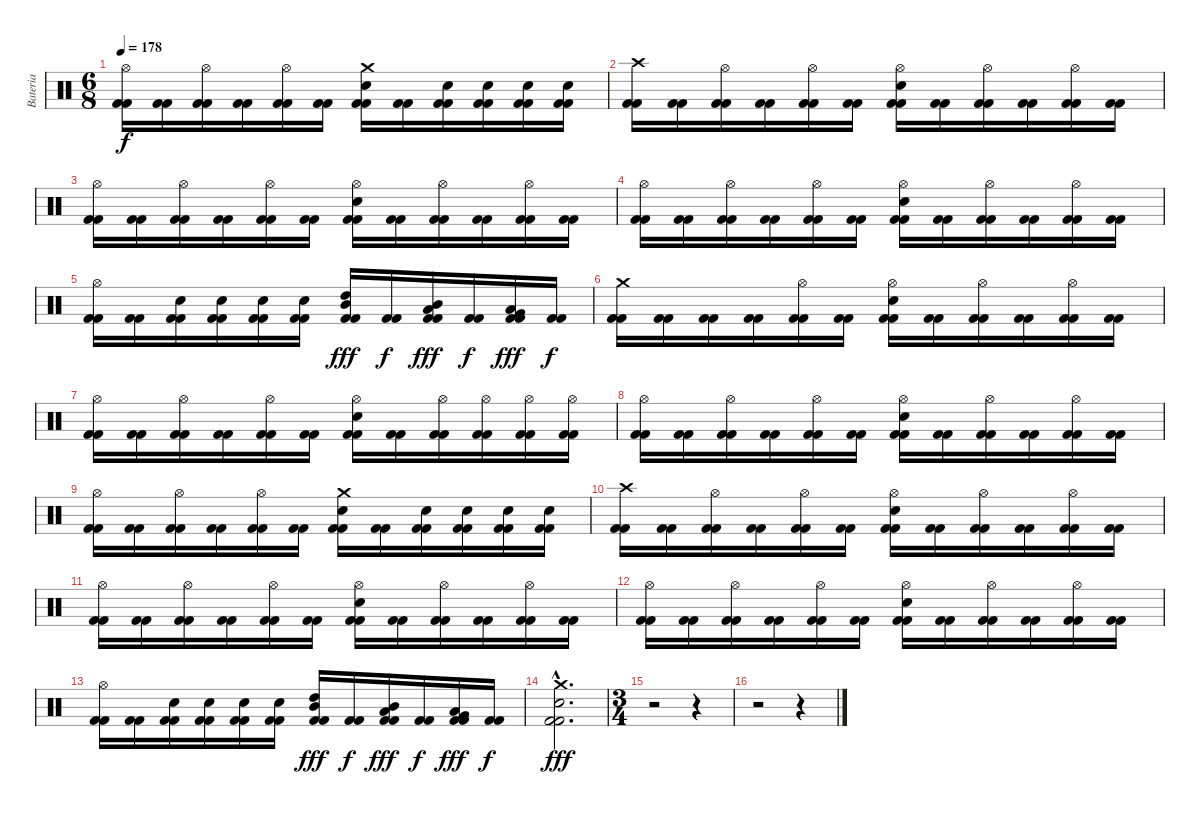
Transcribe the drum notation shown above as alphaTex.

\track ("Bateria" "Bateria") {instrument percussion}
\staff {score}
\articulation defaults
\ts (6 8)
\tempo 178
\clef neutral
\ks c
("Kick (hit) 2" "Kick (hit) 2" "Hi-Hat (open)").16{dy f} ("Kick (hit) 2" "Kick (hit) 2").16 ("Kick (hit) 2" "Kick (hit) 2" "Hi-Hat (open)").16 ("Kick (hit) 2" "Kick (hit) 2").16 ("Kick (hit) 2" "Kick (hit) 2" "Hi-Hat (open)").16 ("Kick (hit) 2" "Kick (hit) 2").16 ("Kick (hit) 2" "Kick (hit) 2" "Snare (hit) 2" "Crash medium (hit)").16 ("Kick (hit) 2" "Kick (hit) 2").16 ("Kick (hit) 2" "Kick (hit) 2" "Snare (hit) 2").16 ("Kick (hit) 2" "Kick (hit) 2" "Snare (hit) 2").16 ("Kick (hit) 2" "Kick (hit) 2" "Snare (hit) 2").16 ("Kick (hit) 2" "Kick (hit) 2" "Snare (hit) 2").16 |
("Kick (hit) 2" "Kick (hit) 2" "Crash high (hit)").16 ("Kick (hit) 2" "Kick (hit) 2").16 ("Kick (hit) 2" "Kick (hit) 2" "Hi-Hat (open)").16 ("Kick (hit) 2" "Kick (hit) 2").16 ("Kick (hit) 2" "Kick (hit) 2" "Hi-Hat (open)").16 ("Kick (hit) 2" "Kick (hit) 2").16 ("Kick (hit) 2" "Kick (hit) 2" "Snare (hit) 2" "Hi-Hat (open)").16 ("Kick (hit) 2" "Kick (hit) 2").16 ("Kick (hit) 2" "Kick (hit) 2" "Hi-Hat (open)").16 ("Kick (hit) 2" "Kick (hit) 2").16 ("Kick (hit) 2" "Kick (hit) 2" "Hi-Hat (open)").16 ("Kick (hit) 2" "Kick (hit) 2").16 |
("Kick (hit) 2" "Kick (hit) 2" "Hi-Hat (open)").16 ("Kick (hit) 2" "Kick (hit) 2").16 ("Kick (hit) 2" "Kick (hit) 2" "Hi-Hat (open)").16 ("Kick (hit) 2" "Kick (hit) 2").16 ("Kick (hit) 2" "Kick (hit) 2" "Hi-Hat (open)").16 ("Kick (hit) 2" "Kick (hit) 2").16 ("Kick (hit) 2" "Kick (hit) 2" "Snare (hit) 2" "Hi-Hat (open)").16 ("Kick (hit) 2" "Kick (hit) 2").16 ("Kick (hit) 2" "Kick (hit) 2" "Hi-Hat (open)").16 ("Kick (hit) 2" "Kick (hit) 2").16 ("Kick (hit) 2" "Kick (hit) 2" "Hi-Hat (open)").16 ("Kick (hit) 2" "Kick (hit) 2").16 |
("Kick (hit) 2" "Kick (hit) 2" "Hi-Hat (open)").16 ("Kick (hit) 2" "Kick (hit) 2").16 ("Kick (hit) 2" "Kick (hit) 2" "Hi-Hat (open)").16 ("Kick (hit) 2" "Kick (hit) 2").16 ("Kick (hit) 2" "Kick (hit) 2" "Hi-Hat (open)").16 ("Kick (hit) 2" "Kick (hit) 2").16 ("Kick (hit) 2" "Kick (hit) 2" "Snare (hit) 2" "Hi-Hat (open)").16 ("Kick (hit) 2" "Kick (hit) 2").16 ("Kick (hit) 2" "Kick (hit) 2" "Hi-Hat (open)").16 ("Kick (hit) 2" "Kick (hit) 2").16 ("Kick (hit) 2" "Kick (hit) 2" "Hi-Hat (open)").16 ("Kick (hit) 2" "Kick (hit) 2").16 |
("Kick (hit) 2" "Kick (hit) 2" "Hi-Hat (open)").16 ("Kick (hit) 2" "Kick (hit) 2").16 ("Kick (hit) 2" "Kick (hit) 2" "Snare (hit) 2").16 ("Kick (hit) 2" "Kick (hit) 2" "Snare (hit) 2").16 ("Kick (hit) 2" "Kick (hit) 2" "Snare (hit) 2").16 ("Kick (hit) 2" "Kick (hit) 2" "Snare (hit) 2").16 ("Kick (hit) 2" "Kick (hit) 2" "Mid Tom (hit)" "High Tom (hit)").16{dy fff} ("Kick (hit) 2" "Kick (hit) 2").16{dy f} ("Kick (hit) 2" "Kick (hit) 2" "Low Tom (hit)" "Mid Tom (hit)").16{dy fff} ("Kick (hit) 2" "Kick (hit) 2").16{dy f} ("Kick (hit) 2" "Kick (hit) 2" "Very Low Tom (hit)" "Low Tom (hit)").16{dy fff} ("Kick (hit) 2" "Kick (hit) 2").16{dy f} |
("Kick (hit) 2" "Kick (hit) 2" "Crash medium (hit)").16 ("Kick (hit) 2" "Kick (hit) 2").16 ("Kick (hit) 2" "Kick (hit) 2").16 ("Kick (hit) 2" "Kick (hit) 2").16 ("Kick (hit) 2" "Kick (hit) 2" "Hi-Hat (open)").16 ("Kick (hit) 2" "Kick (hit) 2").16 ("Kick (hit) 2" "Kick (hit) 2" "Snare (hit) 2" "Hi-Hat (open)").16 ("Kick (hit) 2" "Kick (hit) 2").16 ("Kick (hit) 2" "Kick (hit) 2" "Hi-Hat (open)").16 ("Kick (hit) 2" "Kick (hit) 2").16 ("Kick (hit) 2" "Kick (hit) 2" "Hi-Hat (open)").16 ("Kick (hit) 2" "Kick (hit) 2").16 |
("Kick (hit) 2" "Kick (hit) 2" "Hi-Hat (open)").16 ("Kick (hit) 2" "Kick (hit) 2").16 ("Kick (hit) 2" "Kick (hit) 2" "Hi-Hat (open)").16 ("Kick (hit) 2" "Kick (hit) 2").16 ("Kick (hit) 2" "Kick (hit) 2" "Hi-Hat (open)").16 ("Kick (hit) 2" "Kick (hit) 2").16 ("Kick (hit) 2" "Kick (hit) 2" "Snare (hit) 2" "Hi-Hat (open)").16 ("Kick (hit) 2" "Kick (hit) 2").16 ("Kick (hit) 2" "Kick (hit) 2" "Hi-Hat (open)").16 ("Kick (hit) 2" "Kick (hit) 2" "Hi-Hat (open)").16 ("Kick (hit) 2" "Kick (hit) 2" "Hi-Hat (open)").16 ("Kick (hit) 2" "Kick (hit) 2" "Hi-Hat (open)").16 |
("Kick (hit) 2" "Kick (hit) 2" "Hi-Hat (open)").16 ("Kick (hit) 2" "Kick (hit) 2").16 ("Kick (hit) 2" "Kick (hit) 2" "Hi-Hat (open)").16 ("Kick (hit) 2" "Kick (hit) 2").16 ("Kick (hit) 2" "Kick (hit) 2" "Hi-Hat (open)").16 ("Kick (hit) 2" "Kick (hit) 2").16 ("Kick (hit) 2" "Kick (hit) 2" "Snare (hit) 2" "Hi-Hat (open)").16 ("Kick (hit) 2" "Kick (hit) 2").16 ("Kick (hit) 2" "Kick (hit) 2" "Hi-Hat (open)").16 ("Kick (hit) 2" "Kick (hit) 2").16 ("Kick (hit) 2" "Kick (hit) 2" "Hi-Hat (open)").16 ("Kick (hit) 2" "Kick (hit) 2").16 |
("Kick (hit) 2" "Kick (hit) 2" "Hi-Hat (open)").16 ("Kick (hit) 2" "Kick (hit) 2").16 ("Kick (hit) 2" "Kick (hit) 2" "Hi-Hat (open)").16 ("Kick (hit) 2" "Kick (hit) 2").16 ("Kick (hit) 2" "Kick (hit) 2" "Hi-Hat (open)").16 ("Kick (hit) 2" "Kick (hit) 2").16 ("Kick (hit) 2" "Kick (hit) 2" "Snare (hit) 2" "Crash medium (hit)").16 ("Kick (hit) 2" "Kick (hit) 2").16 ("Kick (hit) 2" "Kick (hit) 2" "Snare (hit) 2").16 ("Kick (hit) 2" "Kick (hit) 2" "Snare (hit) 2").16 ("Kick (hit) 2" "Kick (hit) 2" "Snare (hit) 2").16 ("Kick (hit) 2" "Kick (hit) 2" "Snare (hit) 2").16 |
("Kick (hit) 2" "Kick (hit) 2" "Crash high (hit)").16 ("Kick (hit) 2" "Kick (hit) 2").16 ("Kick (hit) 2" "Kick (hit) 2" "Hi-Hat (open)").16 ("Kick (hit) 2" "Kick (hit) 2").16 ("Kick (hit) 2" "Kick (hit) 2" "Hi-Hat (open)").16 ("Kick (hit) 2" "Kick (hit) 2").16 ("Kick (hit) 2" "Kick (hit) 2" "Snare (hit) 2" "Hi-Hat (open)").16 ("Kick (hit) 2" "Kick (hit) 2").16 ("Kick (hit) 2" "Kick (hit) 2" "Hi-Hat (open)").16 ("Kick (hit) 2" "Kick (hit) 2").16 ("Kick (hit) 2" "Kick (hit) 2" "Hi-Hat (open)").16 ("Kick (hit) 2" "Kick (hit) 2").16 |
("Kick (hit) 2" "Kick (hit) 2" "Hi-Hat (open)").16 ("Kick (hit) 2" "Kick (hit) 2").16 ("Kick (hit) 2" "Kick (hit) 2" "Hi-Hat (open)").16 ("Kick (hit) 2" "Kick (hit) 2").16 ("Kick (hit) 2" "Kick (hit) 2" "Hi-Hat (open)").16 ("Kick (hit) 2" "Kick (hit) 2").16 ("Kick (hit) 2" "Kick (hit) 2" "Snare (hit) 2" "Hi-Hat (open)").16 ("Kick (hit) 2" "Kick (hit) 2").16 ("Kick (hit) 2" "Kick (hit) 2" "Hi-Hat (open)").16 ("Kick (hit) 2" "Kick (hit) 2").16 ("Kick (hit) 2" "Kick (hit) 2" "Hi-Hat (open)").16 ("Kick (hit) 2" "Kick (hit) 2").16 |
("Kick (hit) 2" "Kick (hit) 2" "Hi-Hat (open)").16 ("Kick (hit) 2" "Kick (hit) 2").16 ("Kick (hit) 2" "Kick (hit) 2" "Hi-Hat (open)").16 ("Kick (hit) 2" "Kick (hit) 2").16 ("Kick (hit) 2" "Kick (hit) 2" "Hi-Hat (open)").16 ("Kick (hit) 2" "Kick (hit) 2").16 ("Kick (hit) 2" "Kick (hit) 2" "Snare (hit) 2" "Hi-Hat (open)").16 ("Kick (hit) 2" "Kick (hit) 2").16 ("Kick (hit) 2" "Kick (hit) 2" "Hi-Hat (open)").16 ("Kick (hit) 2" "Kick (hit) 2").16 ("Kick (hit) 2" "Kick (hit) 2" "Hi-Hat (open)").16 ("Kick (hit) 2" "Kick (hit) 2").16 |
("Kick (hit) 2" "Kick (hit) 2" "Hi-Hat (open)").16 ("Kick (hit) 2" "Kick (hit) 2").16 ("Kick (hit) 2" "Kick (hit) 2" "Snare (hit) 2").16 ("Kick (hit) 2" "Kick (hit) 2" "Snare (hit) 2").16 ("Kick (hit) 2" "Kick (hit) 2" "Snare (hit) 2").16 ("Kick (hit) 2" "Kick (hit) 2" "Snare (hit) 2").16 ("Kick (hit) 2" "Kick (hit) 2" "Mid Tom (hit)" "High Tom (hit)").16{dy fff} ("Kick (hit) 2" "Kick (hit) 2").16{dy f} ("Kick (hit) 2" "Kick (hit) 2" "Low Tom (hit)" "Mid Tom (hit)").16{dy fff} ("Kick (hit) 2" "Kick (hit) 2").16{dy f} ("Kick (hit) 2" "Kick (hit) 2" "Very Low Tom (hit)" "Low Tom (hit)").16{dy fff} ("Kick (hit) 2" "Kick (hit) 2").16{dy f} |
("Kick (hit) 2"{hac} "Kick (hit) 2"{hac} "Snare (hit) 2"{hac} "Crash medium (hit)"{hac}).2{d dy fff} |
\ts (3 4)
r.2 r.4 |
r.2 r.4
